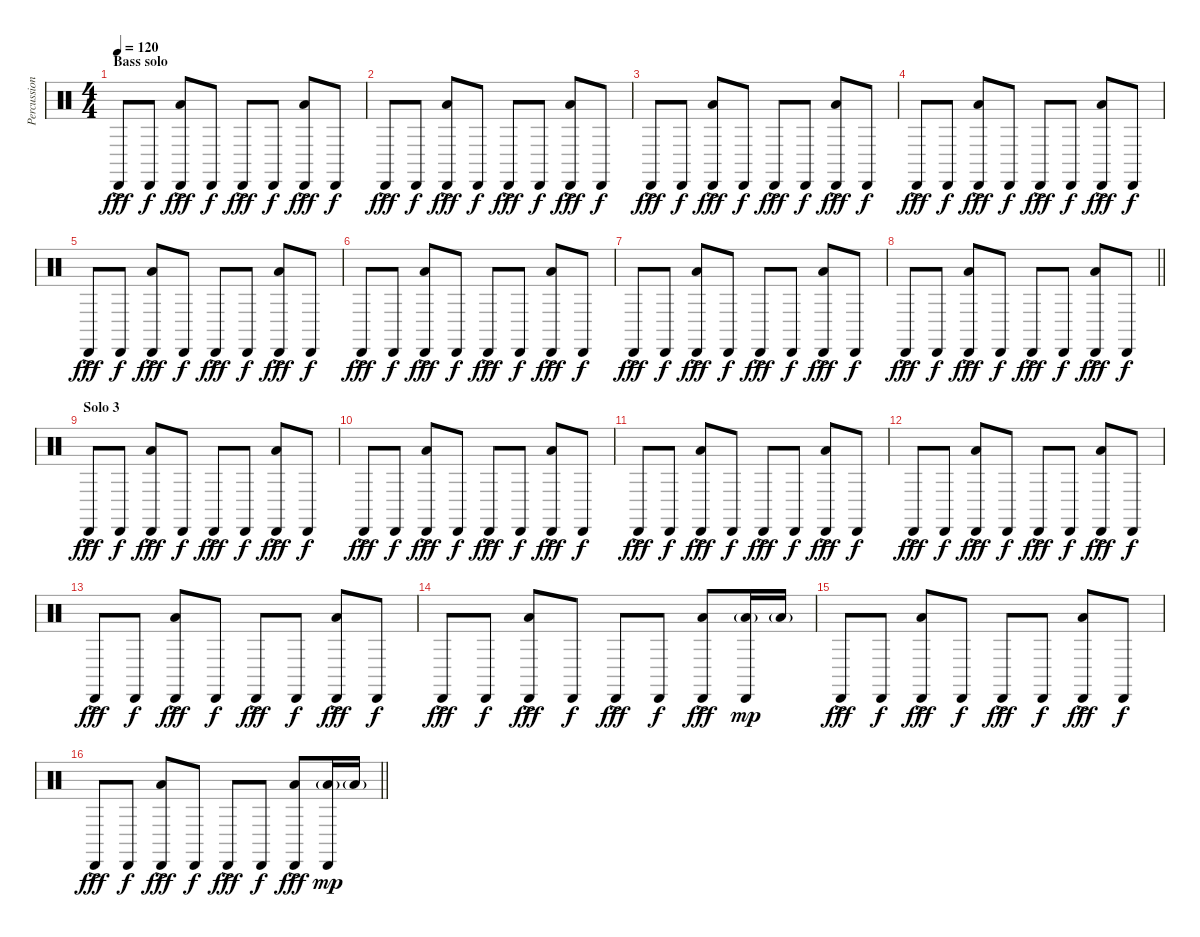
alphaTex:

\track ("Percussion" "Percussion") {instrument percussion}
\staff {score}
\articulation defaults
\ts (4 4)
\section ("" "Bass solo")
\tempo 120
\clef neutral
\ks c "Cabasa (hit)"{ac}.8{dy fff} "Cabasa (hit)".8{dy f}
("Cabasa (hit)"{ac} "Low Tom (hit)").8{dy fff} "Cabasa (hit)".8{dy f} "Cabasa (hit)"{ac}.8{dy fff} "Cabasa (hit)".8{dy f} ("Cabasa (hit)"{ac} "Low Tom (hit)").8{dy fff} "Cabasa (hit)".8{dy f} |
"Cabasa (hit)"{ac}.8{dy fff} "Cabasa (hit)".8{dy f} ("Cabasa (hit)"{ac} "Low Tom (hit)").8{dy fff} "Cabasa (hit)".8{dy f} "Cabasa (hit)"{ac}.8{dy fff} "Cabasa (hit)".8{dy f} ("Cabasa (hit)"{ac} "Low Tom (hit)").8{dy fff} "Cabasa (hit)".8{dy f} |
"Cabasa (hit)"{ac}.8{dy fff} "Cabasa (hit)".8{dy f} ("Cabasa (hit)"{ac} "Low Tom (hit)").8{dy fff} "Cabasa (hit)".8{dy f} "Cabasa (hit)"{ac}.8{dy fff} "Cabasa (hit)".8{dy f} ("Cabasa (hit)"{ac} "Low Tom (hit)").8{dy fff} "Cabasa (hit)".8{dy f} |
"Cabasa (hit)"{ac}.8{dy fff} "Cabasa (hit)".8{dy f} ("Cabasa (hit)"{ac} "Low Tom (hit)").8{dy fff} "Cabasa (hit)".8{dy f} "Cabasa (hit)"{ac}.8{dy fff} "Cabasa (hit)".8{dy f} ("Cabasa (hit)"{ac} "Low Tom (hit)").8{dy fff} "Cabasa (hit)".8{dy f} |
"Cabasa (hit)"{ac}.8{dy fff} "Cabasa (hit)".8{dy f} ("Cabasa (hit)"{ac} "Low Tom (hit)").8{dy fff} "Cabasa (hit)".8{dy f} "Cabasa (hit)"{ac}.8{dy fff} "Cabasa (hit)".8{dy f} ("Cabasa (hit)"{ac} "Low Tom (hit)").8{dy fff} "Cabasa (hit)".8{dy f} |
"Cabasa (hit)"{ac}.8{dy fff} "Cabasa (hit)".8{dy f} ("Cabasa (hit)"{ac} "Low Tom (hit)").8{dy fff} "Cabasa (hit)".8{dy f} "Cabasa (hit)"{ac}.8{dy fff} "Cabasa (hit)".8{dy f} ("Cabasa (hit)"{ac} "Low Tom (hit)").8{dy fff} "Cabasa (hit)".8{dy f} |
"Cabasa (hit)"{ac}.8{dy fff} "Cabasa (hit)".8{dy f} ("Cabasa (hit)"{ac} "Low Tom (hit)").8{dy fff} "Cabasa (hit)".8{dy f} "Cabasa (hit)"{ac}.8{dy fff} "Cabasa (hit)".8{dy f} ("Cabasa (hit)"{ac} "Low Tom (hit)").8{dy fff} "Cabasa (hit)".8{dy f} |
\barLineRight lightlight "Cabasa (hit)"{ac}.8{dy fff} "Cabasa (hit)".8{dy f}
("Cabasa (hit)"{ac} "Low Tom (hit)").8{dy fff} "Cabasa (hit)".8{dy f} "Cabasa (hit)"{ac}.8{dy fff} "Cabasa (hit)".8{dy f} ("Cabasa (hit)"{ac} "Low Tom (hit)").8{dy fff} "Cabasa (hit)".8{dy f} |
\section ("" "Solo 3")
"Cabasa (hit)"{ac}.8{dy fff} "Cabasa (hit)".8{dy f} ("Cabasa (hit)"{ac} "Low Tom (hit)").8{dy fff} "Cabasa (hit)".8{dy f} "Cabasa (hit)"{ac}.8{dy fff} "Cabasa (hit)".8{dy f} ("Cabasa (hit)"{ac} "Low Tom (hit)").8{dy fff} "Cabasa (hit)".8{dy f} |
"Cabasa (hit)"{ac}.8{dy fff} "Cabasa (hit)".8{dy f} ("Cabasa (hit)"{ac} "Low Tom (hit)").8{dy fff} "Cabasa (hit)".8{dy f} "Cabasa (hit)"{ac}.8{dy fff} "Cabasa (hit)".8{dy f} ("Cabasa (hit)"{ac} "Low Tom (hit)").8{dy fff} "Cabasa (hit)".8{dy f} |
"Cabasa (hit)"{ac}.8{dy fff} "Cabasa (hit)".8{dy f} ("Cabasa (hit)"{ac} "Low Tom (hit)").8{dy fff} "Cabasa (hit)".8{dy f} "Cabasa (hit)"{ac}.8{dy fff} "Cabasa (hit)".8{dy f} ("Cabasa (hit)"{ac} "Low Tom (hit)").8{dy fff} "Cabasa (hit)".8{dy f} |
"Cabasa (hit)"{ac}.8{dy fff} "Cabasa (hit)".8{dy f} ("Cabasa (hit)"{ac} "Low Tom (hit)").8{dy fff} "Cabasa (hit)".8{dy f} "Cabasa (hit)"{ac}.8{dy fff} "Cabasa (hit)".8{dy f} ("Cabasa (hit)"{ac} "Low Tom (hit)").8{dy fff} "Cabasa (hit)".8{dy f} |
"Cabasa (hit)"{ac}.8{dy fff} "Cabasa (hit)".8{dy f} ("Cabasa (hit)"{ac} "Low Tom (hit)").8{dy fff} "Cabasa (hit)".8{dy f} "Cabasa (hit)"{ac}.8{dy fff} "Cabasa (hit)".8{dy f} ("Cabasa (hit)"{ac} "Low Tom (hit)").8{dy fff} "Cabasa (hit)".8{dy f} |
"Cabasa (hit)"{ac}.8{dy fff} "Cabasa (hit)".8{dy f} ("Cabasa (hit)"{ac} "Low Tom (hit)").8{dy fff} "Cabasa (hit)".8{dy f} "Cabasa (hit)"{ac}.8{dy fff} "Cabasa (hit)".8{dy f} ("Cabasa (hit)"{ac} "Low Tom (hit)").8{dy fff} ("Cabasa (hit)" "Low Tom (hit)"{g}).16{dy mp} "Low Tom (hit)"{g}.16 |
"Cabasa (hit)"{ac}.8{dy fff} "Cabasa (hit)".8{dy f} ("Cabasa (hit)"{ac} "Low Tom (hit)").8{dy fff} "Cabasa (hit)".8{dy f} "Cabasa (hit)"{ac}.8{dy fff} "Cabasa (hit)".8{dy f} ("Cabasa (hit)"{ac} "Low Tom (hit)").8{dy fff} "Cabasa (hit)".8{dy f} |
\barLineRight lightlight "Cabasa (hit)"{ac}.8{dy fff} "Cabasa (hit)".8{dy f}
("Cabasa (hit)"{ac} "Low Tom (hit)").8{dy fff} "Cabasa (hit)".8{dy f} "Cabasa (hit)"{ac}.8{dy fff} "Cabasa (hit)".8{dy f} ("Cabasa (hit)"{ac} "Low Tom (hit)").8{dy fff} ("Cabasa (hit)" "Low Tom (hit)"{g}).16{dy mp} "Low Tom (hit)"{g}.16
